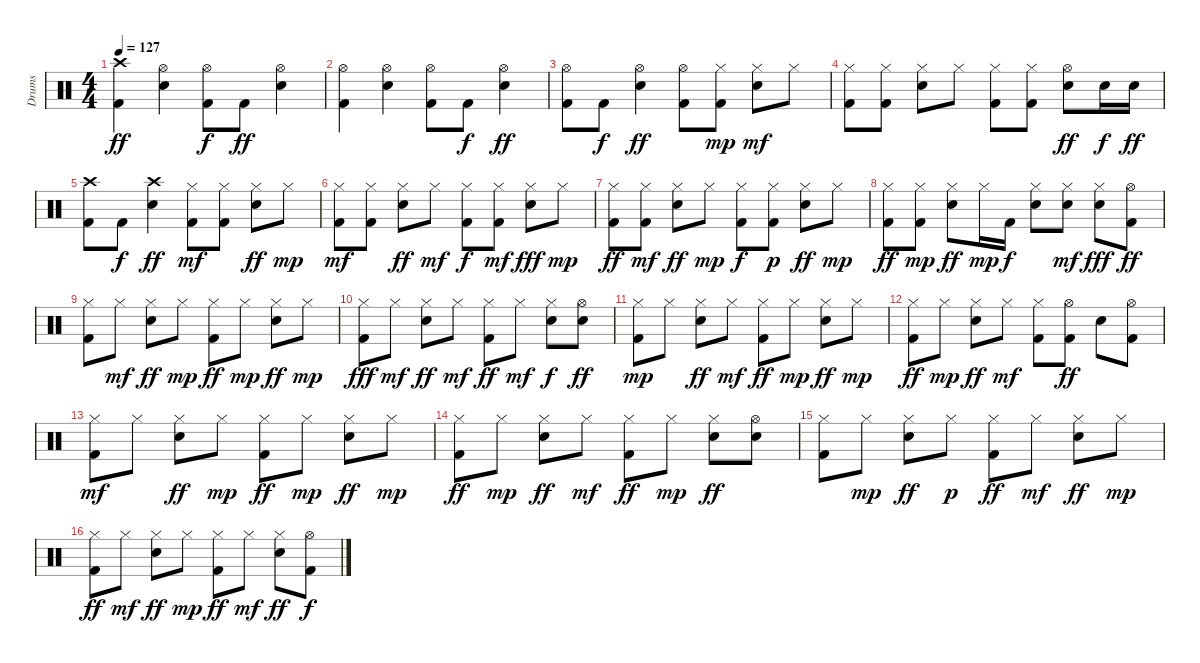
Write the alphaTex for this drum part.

\track ("Drums" "Drums") {instrument percussion}
\staff {score}
\articulation defaults
\ts (4 4)
\tempo 127
\clef neutral
\ks c
("Kick (hit) 2" "Crash high (hit)").4{dy ff} ("Electric Snare (hit)" "Hi-Hat (open)").4 ("Hi-Hat (open)" "Kick (hit) 2").8{dy f} "Kick (hit) 2".8{dy ff} ("Electric Snare (hit)" "Hi-Hat (open)").4 |
("Hi-Hat (open)" "Kick (hit) 2").4 ("Electric Snare (hit)" "Hi-Hat (open)").4 ("Hi-Hat (open)" "Kick (hit) 2").8 "Kick (hit) 2".8{dy f} ("Electric Snare (hit)" "Hi-Hat (open)").4{dy ff} |
("Kick (hit) 2" "Hi-Hat (open)").8 "Kick (hit) 2".8{dy f} ("Electric Snare (hit)" "Hi-Hat (open)").4{dy ff} ("Kick (hit) 2" "Hi-Hat (open)").8 ("Kick (hit) 2" "Hi-Hat (closed)").8{dy mp} ("Electric Snare (hit)" "Hi-Hat (closed)").8{dy mf} "Hi-Hat (closed)".8 |
("Kick (hit) 2" "Hi-Hat (closed)").8 ("Kick (hit) 2" "Hi-Hat (closed)").8 ("Electric Snare (hit)" "Hi-Hat (closed)").8 "Hi-Hat (closed)".8 ("Kick (hit) 2" "Hi-Hat (closed)").8 ("Kick (hit) 2" "Hi-Hat (closed)").8 ("Electric Snare (hit)" "Hi-Hat (open)").8{dy ff} "Electric Snare (hit)".16{dy f} "Electric Snare (hit)".16{dy ff} |
("Kick (hit) 2" "Crash high (hit)").8 "Kick (hit) 2".8{dy f} ("Electric Snare (hit)" "Crash high (hit)").4{dy ff} ("Hi-Hat (closed)" "Kick (hit) 2").8{dy mf} ("Hi-Hat (closed)" "Kick (hit) 2").8 ("Hi-Hat (closed)" "Electric Snare (hit)").8{dy ff} "Hi-Hat (closed)".8{dy mp} |
("Hi-Hat (closed)" "Kick (hit) 2").8{dy mf} ("Hi-Hat (closed)" "Kick (hit) 2").8 ("Hi-Hat (closed)" "Electric Snare (hit)").8{dy ff} "Hi-Hat (closed)".8{dy mf} ("Kick (hit) 2" "Hi-Hat (closed)").8{dy f} ("Kick (hit) 2" "Hi-Hat (closed)").8{dy mf} ("Electric Snare (hit)" "Hi-Hat (closed)").8{dy fff} "Hi-Hat (closed)".8{dy mp} |
("Kick (hit) 2" "Hi-Hat (closed)").8{dy ff} ("Kick (hit) 2" "Hi-Hat (closed)").8{dy mf} ("Electric Snare (hit)" "Hi-Hat (closed)").8{dy ff} "Hi-Hat (closed)".8{dy mp} ("Kick (hit) 2" "Hi-Hat (closed)").8{dy f} ("Hi-Hat (closed)" "Kick (hit) 2").8{dy p} ("Electric Snare (hit)" "Hi-Hat (closed)").8{dy ff} "Hi-Hat (closed)".8{dy mp} |
("Kick (hit) 2" "Hi-Hat (closed)").8{dy ff} ("Kick (hit) 2" "Hi-Hat (closed)").8{dy mp} ("Electric Snare (hit)" "Hi-Hat (closed)").8{dy ff} "Hi-Hat (closed)".16{dy mp} "Kick (hit) 2".16{dy f} ("Electric Snare (hit)" "Hi-Hat (closed)").8 ("Electric Snare (hit)" "Hi-Hat (closed)").8{dy mf} ("Electric Snare (hit)" "Hi-Hat (closed)").8{dy fff} ("Kick (hit) 2" "Hi-Hat (open)").8{dy ff} |
("Kick (hit) 2" "Hi-Hat (closed)").8 "Hi-Hat (closed)".8{dy mf} ("Electric Snare (hit)" "Hi-Hat (closed)").8{dy ff} "Hi-Hat (closed)".8{dy mp} ("Hi-Hat (closed)" "Kick (hit) 2").8{dy ff} "Hi-Hat (closed)".8{dy mp} ("Electric Snare (hit)" "Hi-Hat (closed)").8{dy ff} "Hi-Hat (closed)".8{dy mp} |
("Kick (hit) 2" "Hi-Hat (closed)").8{dy fff} "Hi-Hat (closed)".8{dy mf} ("Hi-Hat (closed)" "Electric Snare (hit)").8{dy ff} "Hi-Hat (closed)".8{dy mf} ("Hi-Hat (closed)" "Kick (hit) 2").8{dy ff} "Hi-Hat (closed)".8{dy mf} ("Electric Snare (hit)" "Hi-Hat (closed)").8{dy f} ("Electric Snare (hit)" "Hi-Hat (open)").8{dy ff} |
("Kick (hit) 2" "Hi-Hat (closed)").8{dy mp} "Hi-Hat (closed)".8 ("Electric Snare (hit)" "Hi-Hat (closed)").8{dy ff} "Hi-Hat (closed)".8{dy mf} ("Kick (hit) 2" "Hi-Hat (closed)").8{dy ff} "Hi-Hat (closed)".8{dy mp} ("Electric Snare (hit)" "Hi-Hat (closed)").8{dy ff} "Hi-Hat (closed)".8{dy mp} |
("Hi-Hat (closed)" "Kick (hit) 2").8{dy ff} "Hi-Hat (closed)".8{dy mp} ("Electric Snare (hit)" "Hi-Hat (closed)").8{dy ff} "Hi-Hat (closed)".8{dy mf} ("Kick (hit) 2" "Hi-Hat (closed)").8 ("Kick (hit) 2" "Hi-Hat (open)").8{dy ff} "Electric Snare (hit)".8 ("Hi-Hat (open)" "Kick (hit) 2").8 |
("Kick (hit) 2" "Hi-Hat (closed)").8{dy mf} "Hi-Hat (closed)".8 ("Electric Snare (hit)" "Hi-Hat (closed)").8{dy ff} "Hi-Hat (closed)".8{dy mp} ("Hi-Hat (closed)" "Kick (hit) 2").8{dy ff} "Hi-Hat (closed)".8{dy mp} ("Electric Snare (hit)" "Hi-Hat (closed)").8{dy ff} "Hi-Hat (closed)".8{dy mp} |
("Hi-Hat (closed)" "Kick (hit) 2").8{dy ff} "Hi-Hat (closed)".8{dy mp} ("Electric Snare (hit)" "Hi-Hat (closed)").8{dy ff} "Hi-Hat (closed)".8{dy mf} ("Kick (hit) 2" "Hi-Hat (closed)").8{dy ff} "Hi-Hat (closed)".8{dy mp} ("Electric Snare (hit)" "Hi-Hat (closed)").8{dy ff} ("Electric Snare (hit)" "Hi-Hat (open)").8 |
("Hi-Hat (closed)" "Kick (hit) 2").8 "Hi-Hat (closed)".8{dy mp} ("Electric Snare (hit)" "Hi-Hat (closed)").8{dy ff} "Hi-Hat (closed)".8{dy p} ("Kick (hit) 2" "Hi-Hat (closed)").8{dy ff} "Hi-Hat (closed)".8{dy mf} ("Electric Snare (hit)" "Hi-Hat (closed)").8{dy ff} "Hi-Hat (closed)".8{dy mp} |
("Hi-Hat (closed)" "Kick (hit) 2").8{dy ff} "Hi-Hat (closed)".8{dy mf} ("Electric Snare (hit)" "Hi-Hat (closed)").8{dy ff} "Hi-Hat (closed)".8{dy mp} ("Kick (hit) 2" "Hi-Hat (closed)").8{dy ff} "Hi-Hat (closed)".8{dy mf} ("Electric Snare (hit)" "Hi-Hat (closed)").8{dy ff} ("Hi-Hat (open)" "Kick (hit) 2").8{dy f}
